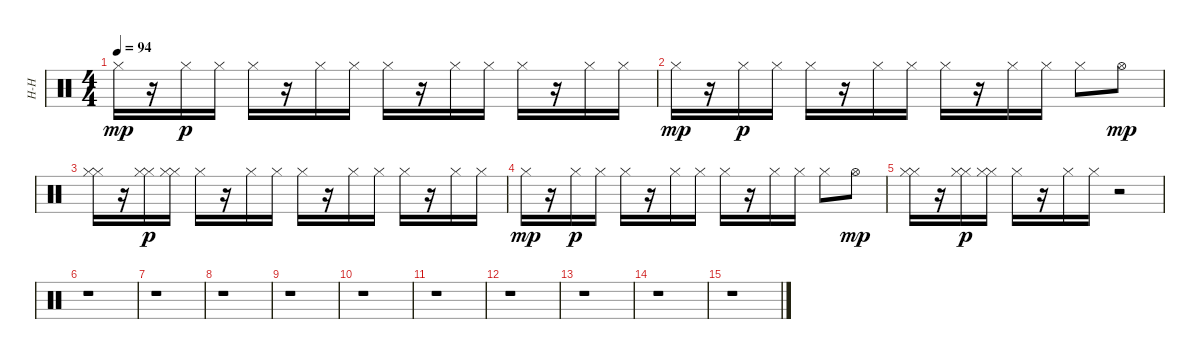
\track ("H-H" "H-H") {instrument percussion}
\staff {score}
\articulation defaults
\ts (4 4)
\tempo 94
\clef neutral
\ks c "Hi-Hat (closed)".16{dy mp}
r.16 "Hi-Hat (closed)".16{dy p} "Hi-Hat (closed)".16 "Hi-Hat (closed)".16 r.16 "Hi-Hat (closed)".16 "Hi-Hat (closed)".16 "Hi-Hat (closed)".16 r.16 "Hi-Hat (closed)".16 "Hi-Hat (closed)".16 "Hi-Hat (closed)".16 r.16 "Hi-Hat (closed)".16 "Hi-Hat (closed)".16 |
"Hi-Hat (closed)".16{dy mp} r.16 "Hi-Hat (closed)".16{dy p} "Hi-Hat (closed)".16 "Hi-Hat (closed)".16 r.16 "Hi-Hat (closed)".16 "Hi-Hat (closed)".16 "Hi-Hat (closed)".16 r.16 "Hi-Hat (closed)".16 "Hi-Hat (closed)".16 "Hi-Hat (closed)".8 "Hi-Hat (open)".8{dy mp} |
("Hi-Hat (closed)" "Hi-Hat (closed)").16 r.16 ("Hi-Hat (closed)" "Hi-Hat (closed)").16{dy p} ("Hi-Hat (closed)" "Hi-Hat (closed)").16 "Hi-Hat (closed)".16 r.16 "Hi-Hat (closed)".16 "Hi-Hat (closed)".16 "Hi-Hat (closed)".16 r.16 "Hi-Hat (closed)".16 "Hi-Hat (closed)".16 "Hi-Hat (closed)".16 r.16 "Hi-Hat (closed)".16 "Hi-Hat (closed)".16 |
"Hi-Hat (closed)".16{dy mp} r.16 "Hi-Hat (closed)".16{dy p} "Hi-Hat (closed)".16 "Hi-Hat (closed)".16 r.16 "Hi-Hat (closed)".16 "Hi-Hat (closed)".16 "Hi-Hat (closed)".16 r.16 "Hi-Hat (closed)".16 "Hi-Hat (closed)".16 "Hi-Hat (closed)".8 "Hi-Hat (open)".8{dy mp} |
("Hi-Hat (closed)" "Hi-Hat (closed)").16 r.16 ("Hi-Hat (closed)" "Hi-Hat (closed)").16{dy p} ("Hi-Hat (closed)" "Hi-Hat (closed)").16 "Hi-Hat (closed)".16 r.16 "Hi-Hat (closed)".16 "Hi-Hat (closed)".16 r.2 |
r.1 |
r.1 |
r.1 |
r.1 |
r.1 |
r.1 |
r.1 |
r.1 |
r.1 |
r.1
